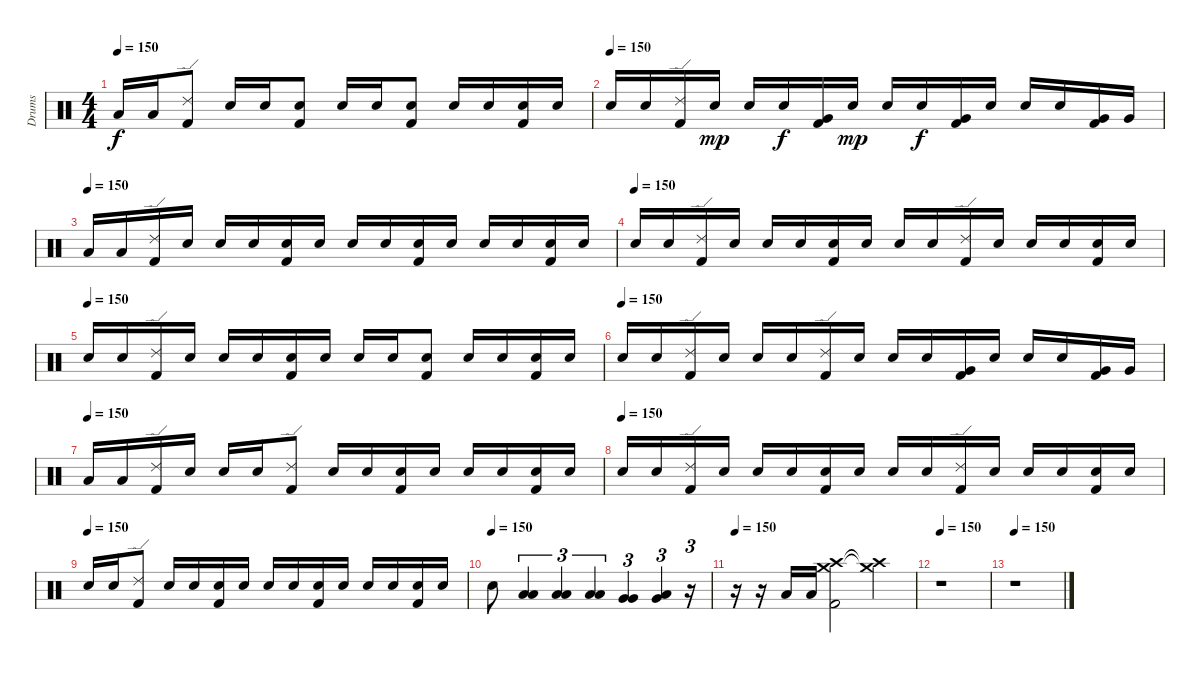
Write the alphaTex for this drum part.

\track ("Drums" "Drums") {instrument percussion}
\staff {score}
\articulation defaults
\ts (4 4)
\tempo 150
\clef neutral
\ks c "Low Floor Tom (hit)".16{dy f} "Low Floor Tom (hit)".16
("Ride (edge) 2" "Kick (hit) 2").8 "Snare (hit) 2".16 "Snare (hit) 2".16 ("Snare (hit) 2" "Kick (hit) 2").8 "Snare (hit) 2".16 "Snare (hit) 2".16 ("Snare (hit) 2" "Kick (hit) 2").8 "Snare (hit) 2".16 "Snare (hit) 2".16 ("Snare (hit) 2" "Kick (hit) 2").16 "Snare (hit) 2".16 |
\tempo (150)
"Snare (hit) 2".16 "Snare (hit) 2".16 ("Ride (edge) 2" "Kick (hit) 2").16 "Snare (hit) 2".16{dy mp} "Snare (hit) 2".16 "Snare (hit) 2".16{dy f} ("Very Low Tom (hit)" "Kick (hit) 2").16 "Snare (hit) 2".16{dy mp} "Snare (hit) 2".16 "Snare (hit) 2".16{dy f} ("Very Low Tom (hit)" "Kick (hit) 2").16 "Snare (hit) 2".16 "Snare (hit) 2".16 "Snare (hit) 2".16 ("Very Low Tom (hit)" "Kick (hit) 2").16 "Very Low Tom (hit)".16 |
\tempo (150)
"Low Floor Tom (hit)".16 "Low Floor Tom (hit)".16 ("Ride (edge) 2" "Kick (hit) 2").16 "Snare (hit) 2".16 "Snare (hit) 2".16 "Snare (hit) 2".16 ("Snare (hit) 2" "Kick (hit) 2").16 "Snare (hit) 2".16 "Snare (hit) 2".16 "Snare (hit) 2".16 ("Snare (hit) 2" "Kick (hit) 2").16 "Snare (hit) 2".16 "Snare (hit) 2".16 "Snare (hit) 2".16 ("Snare (hit) 2" "Kick (hit) 2").16 "Snare (hit) 2".16 |
\tempo (150)
"Snare (hit) 2".16 "Snare (hit) 2".16 ("Ride (edge) 2" "Kick (hit) 2").16 "Snare (hit) 2".16 "Snare (hit) 2".16 "Snare (hit) 2".16 ("Snare (hit) 2" "Kick (hit) 2").16 "Snare (hit) 2".16 "Snare (hit) 2".16 "Snare (hit) 2".16 ("Ride (edge) 2" "Kick (hit) 2").16 "Snare (hit) 2".16 "Snare (hit) 2".16 "Snare (hit) 2".16 ("Snare (hit) 2" "Kick (hit) 2").16 "Snare (hit) 2".16 |
\tempo (150)
"Snare (hit) 2".16 "Snare (hit) 2".16 ("Ride (edge) 2" "Kick (hit) 2").16 "Snare (hit) 2".16 "Snare (hit) 2".16 "Snare (hit) 2".16 ("Snare (hit) 2" "Kick (hit) 2").16 "Snare (hit) 2".16 "Snare (hit) 2".16 "Snare (hit) 2".16 ("Snare (hit) 2" "Kick (hit) 2").8 "Snare (hit) 2".16 "Snare (hit) 2".16 ("Snare (hit) 2" "Kick (hit) 2").16 "Snare (hit) 2".16 |
\tempo (150)
"Snare (hit) 2".16 "Snare (hit) 2".16 ("Ride (edge) 2" "Kick (hit) 2").16 "Snare (hit) 2".16 "Snare (hit) 2".16 "Snare (hit) 2".16 ("Ride (edge) 2" "Kick (hit) 2").16 "Snare (hit) 2".16 "Snare (hit) 2".16 "Snare (hit) 2".16 ("Very Low Tom (hit)" "Kick (hit) 2").16 "Snare (hit) 2".16 "Snare (hit) 2".16 "Snare (hit) 2".16 ("Very Low Tom (hit)" "Kick (hit) 2").16 "Very Low Tom (hit)".16 |
\tempo (150)
"Low Floor Tom (hit)".16 "Low Floor Tom (hit)".16 ("Ride (edge) 2" "Kick (hit) 2").16 "Snare (hit) 2".16 "Snare (hit) 2".16 "Snare (hit) 2".16 ("Ride (edge) 2" "Kick (hit) 2").8 "Snare (hit) 2".16 "Snare (hit) 2".16 ("Snare (hit) 2" "Kick (hit) 2").16 "Snare (hit) 2".16 "Snare (hit) 2".16 "Snare (hit) 2".16 ("Snare (hit) 2" "Kick (hit) 2").16 "Snare (hit) 2".16 |
\tempo (150)
"Snare (hit) 2".16 "Snare (hit) 2".16 ("Ride (edge) 2" "Kick (hit) 2").16 "Snare (hit) 2".16 "Snare (hit) 2".16 "Snare (hit) 2".16 ("Snare (hit) 2" "Kick (hit) 2").16 "Snare (hit) 2".16 "Snare (hit) 2".16 "Snare (hit) 2".16 ("Ride (edge) 2" "Kick (hit) 2").16 "Snare (hit) 2".16 "Snare (hit) 2".16 "Snare (hit) 2".16 ("Snare (hit) 2" "Kick (hit) 2").16 "Snare (hit) 2".16 |
\tempo (150)
"Snare (hit) 2".16 "Snare (hit) 2".16 ("Ride (edge) 2" "Kick (hit) 2").8 "Snare (hit) 2".16 "Snare (hit) 2".16 ("Snare (hit) 2" "Kick (hit) 2").16 "Snare (hit) 2".16 "Snare (hit) 2".16 "Snare (hit) 2".16 ("Snare (hit) 2" "Kick (hit) 2").16 "Snare (hit) 2".16 "Snare (hit) 2".16 "Snare (hit) 2".16 ("Snare (hit) 2" "Kick (hit) 2").16 "Snare (hit) 2".16 |
\tempo (150)
"Snare (hit) 2".8 ("Low Tom (hit)" "Low Tom (hit)").4{tu (3 2)} ("Low Tom (hit)" "Low Tom (hit)").4{tu (3 2)} ("Low Tom (hit)" "Low Tom (hit)").4{tu (3 2)} ("Very Low Tom (hit)" "Very Low Tom (hit)").4{tu (3 2)} ("Very Low Tom (hit)" "Low Floor Tom (hit)").4{tu (3 2)} r.16{tu (3 2)} |
\tempo 150
r.16 r.16 "Low Floor Tom (hit)".16 "Low Floor Tom (hit)".16 ("Crash high (hit)" "Crash medium (hit)" "Kick (hit) 2").2 ("Crash high (hit)"{t} "Crash medium (hit)"{t}).4 |
\tempo 150
r.1 |
\tempo 150
r.1
